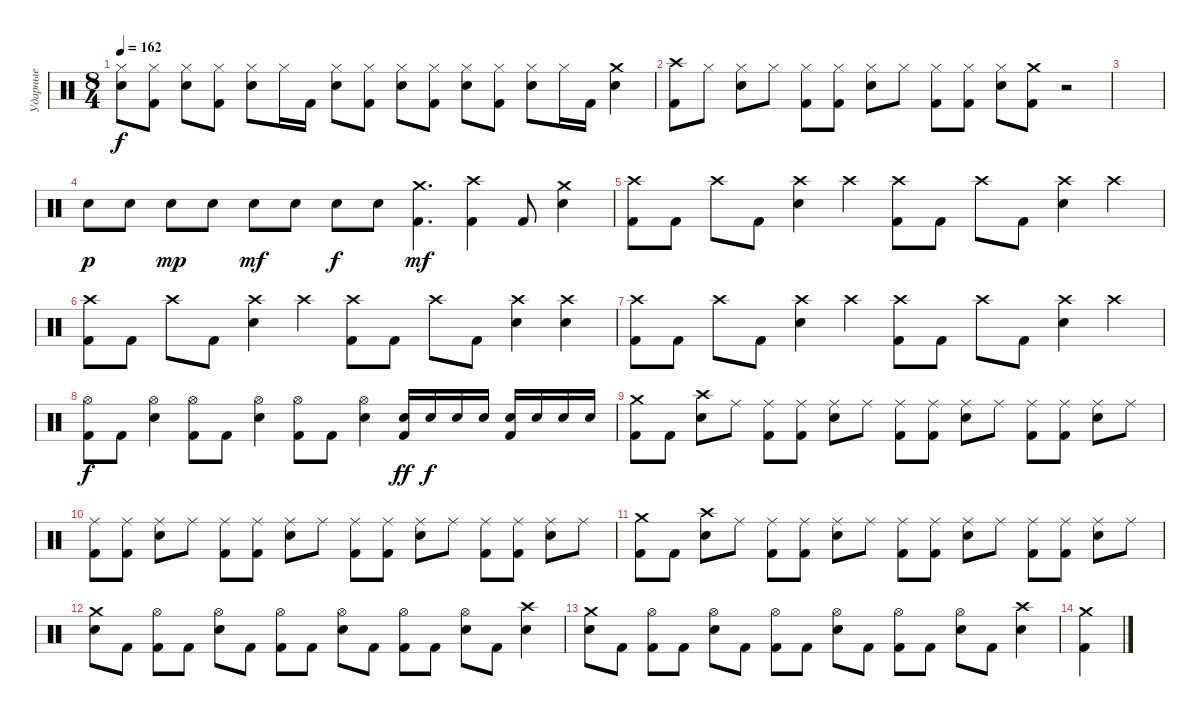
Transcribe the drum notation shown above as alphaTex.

\track ("Ударные" "Ударные") {instrument percussion}
\staff {score}
\articulation defaults
\ts (8 4)
\tempo 162
\clef neutral
\ks c
("Hi-Hat (closed)" "Snare (hit) 2").8{dy f} ("Hi-Hat (closed)" "Kick (hit) 2").8 ("Hi-Hat (closed)" "Snare (hit) 2").8 ("Hi-Hat (closed)" "Kick (hit) 2").8 ("Hi-Hat (closed)" "Snare (hit) 2").8 "Hi-Hat (closed)".16 "Kick (hit) 2".16 ("Hi-Hat (closed)" "Snare (hit) 2").8 ("Hi-Hat (closed)" "Kick (hit) 2").8 ("Hi-Hat (closed)" "Snare (hit) 2").8 ("Hi-Hat (closed)" "Kick (hit) 2").8 ("Hi-Hat (closed)" "Snare (hit) 2").8 ("Hi-Hat (closed)" "Kick (hit) 2").8 ("Hi-Hat (closed)" "Snare (hit) 2").8 "Hi-Hat (closed)".16 "Kick (hit) 2".16 ("Crash medium (hit)" "Snare (hit) 2").4 |
("Crash high (hit)" "Kick (hit) 2").8 "Hi-Hat (closed)".8 ("Hi-Hat (closed)" "Snare (hit) 2").8 "Hi-Hat (closed)".8 ("Hi-Hat (closed)" "Kick (hit) 2").8 ("Hi-Hat (closed)" "Kick (hit) 2").8 ("Hi-Hat (closed)" "Snare (hit) 2").8 "Hi-Hat (closed)".8 ("Hi-Hat (closed)" "Kick (hit) 2").8 ("Hi-Hat (closed)" "Kick (hit) 2").8 ("Hi-Hat (closed)" "Snare (hit) 2").8 ("Crash medium (hit)" "Kick (hit) 2").8 r.2 |
|
"Snare (hit) 2".8{dy p} "Snare (hit) 2".8 "Snare (hit) 2".8{dy mp} "Snare (hit) 2".8 "Snare (hit) 2".8{dy mf} "Snare (hit) 2".8 "Snare (hit) 2".8{dy f} "Snare (hit) 2".8 ("Crash medium (hit)" "Kick (hit) 2").4{d dy mf} ("Crash high (hit)" "Kick (hit) 2").4 "Kick (hit) 2".8 ("Crash medium (hit)" "Snare (hit) 2").4 |
("Crash high (hit)" "Kick (hit) 2").8 "Kick (hit) 2".8 "Crash high (hit)".8 "Kick (hit) 2".8 ("Crash high (hit)" "Snare (hit) 2").4 "Crash high (hit)".4 ("Crash high (hit)" "Kick (hit) 2").8 "Kick (hit) 2".8 "Crash high (hit)".8 "Kick (hit) 2".8 ("Crash high (hit)" "Snare (hit) 2").4 "Crash high (hit)".4 |
("Crash high (hit)" "Kick (hit) 2").8 "Kick (hit) 2".8 "Crash high (hit)".8 "Kick (hit) 2".8 ("Crash high (hit)" "Snare (hit) 2").4 "Crash high (hit)".4 ("Crash high (hit)" "Kick (hit) 2").8 "Kick (hit) 2".8 "Crash high (hit)".8 "Kick (hit) 2".8 ("Crash high (hit)" "Snare (hit) 2").4 ("Crash high (hit)" "Snare (hit) 2").4 |
("Crash high (hit)" "Kick (hit) 2").8 "Kick (hit) 2".8 "Crash high (hit)".8 "Kick (hit) 2".8 ("Crash high (hit)" "Snare (hit) 2").4 "Crash high (hit)".4 ("Crash high (hit)" "Kick (hit) 2").8 "Kick (hit) 2".8 "Crash high (hit)".8 "Kick (hit) 2".8 ("Crash high (hit)" "Snare (hit) 2").4 "Crash high (hit)".4 |
("Hi-Hat (open)" "Kick (hit) 2").8{dy f} "Kick (hit) 2".8 ("Hi-Hat (open)" "Snare (hit) 2").4 ("Hi-Hat (open)" "Kick (hit) 2").8 "Kick (hit) 2".8 ("Hi-Hat (open)" "Snare (hit) 2").4 ("Hi-Hat (open)" "Kick (hit) 2").8 "Kick (hit) 2".8 ("Hi-Hat (open)" "Snare (hit) 2").4 ("Snare (hit) 2" "Kick (hit) 2").16{dy ff} "Snare (hit) 2".16{dy f} "Snare (hit) 2".16 "Snare (hit) 2".16 ("Snare (hit) 2" "Kick (hit) 2").16 "Snare (hit) 2".16 "Snare (hit) 2".16 "Snare (hit) 2".16 |
("Crash medium (hit)" "Kick (hit) 2").8 "Kick (hit) 2".8 ("Crash high (hit)" "Snare (hit) 2").8 "Ride (middle)".8 ("Ride (middle)" "Kick (hit) 2").8 ("Ride (middle)" "Kick (hit) 2").8 ("Ride (middle)" "Snare (hit) 2").8 "Ride (middle)".8 ("Ride (middle)" "Kick (hit) 2").8 ("Ride (middle)" "Kick (hit) 2").8 ("Ride (middle)" "Snare (hit) 2").8 "Ride (middle)".8 ("Ride (middle)" "Kick (hit) 2").8 ("Ride (middle)" "Kick (hit) 2").8 ("Ride (middle)" "Snare (hit) 2").8 "Ride (middle)".8 |
("Ride (middle)" "Kick (hit) 2").8 ("Ride (middle)" "Kick (hit) 2").8 ("Ride (middle)" "Snare (hit) 2").8 "Ride (middle)".8 ("Ride (middle)" "Kick (hit) 2").8 ("Ride (middle)" "Kick (hit) 2").8 ("Ride (middle)" "Snare (hit) 2").8 "Ride (middle)".8 ("Ride (middle)" "Kick (hit) 2").8 ("Ride (middle)" "Kick (hit) 2").8 ("Ride (middle)" "Snare (hit) 2").8 "Ride (middle)".8 ("Ride (middle)" "Kick (hit) 2").8 ("Ride (middle)" "Kick (hit) 2").8 ("Ride (middle)" "Snare (hit) 2").8 "Ride (middle)".8 |
("Crash medium (hit)" "Kick (hit) 2").8 "Kick (hit) 2".8 ("Crash high (hit)" "Snare (hit) 2").8 "Ride (middle)".8 ("Ride (middle)" "Kick (hit) 2").8 ("Ride (middle)" "Kick (hit) 2").8 ("Ride (middle)" "Snare (hit) 2").8 "Ride (middle)".8 ("Ride (middle)" "Kick (hit) 2").8 ("Ride (middle)" "Kick (hit) 2").8 ("Ride (middle)" "Snare (hit) 2").8 "Ride (middle)".8 ("Ride (middle)" "Kick (hit) 2").8 ("Ride (middle)" "Kick (hit) 2").8 ("Ride (middle)" "Snare (hit) 2").8 "Ride (middle)".8 |
("Crash medium (hit)" "Snare (hit) 2").8 "Kick (hit) 2".8 ("Hi-Hat (open)" "Kick (hit) 2").8 "Kick (hit) 2".8 ("Hi-Hat (open)" "Snare (hit) 2").8 "Kick (hit) 2".8 ("Hi-Hat (open)" "Kick (hit) 2").8 "Kick (hit) 2".8 ("Hi-Hat (open)" "Snare (hit) 2").8 "Kick (hit) 2".8 ("Hi-Hat (open)" "Kick (hit) 2").8 "Kick (hit) 2".8 ("Hi-Hat (open)" "Snare (hit) 2").8 "Kick (hit) 2".8 ("Crash high (hit)" "Snare (hit) 2").4 |
("Crash medium (hit)" "Snare (hit) 2").8 "Kick (hit) 2".8 ("Hi-Hat (open)" "Kick (hit) 2").8 "Kick (hit) 2".8 ("Hi-Hat (open)" "Snare (hit) 2").8 "Kick (hit) 2".8 ("Hi-Hat (open)" "Kick (hit) 2").8 "Kick (hit) 2".8 ("Hi-Hat (open)" "Snare (hit) 2").8 "Kick (hit) 2".8 ("Hi-Hat (open)" "Kick (hit) 2").8 "Kick (hit) 2".8 ("Hi-Hat (open)" "Snare (hit) 2").8 "Kick (hit) 2".8 ("Crash high (hit)" "Snare (hit) 2").4 |
("Crash medium (hit)" "Kick (hit) 2").4
